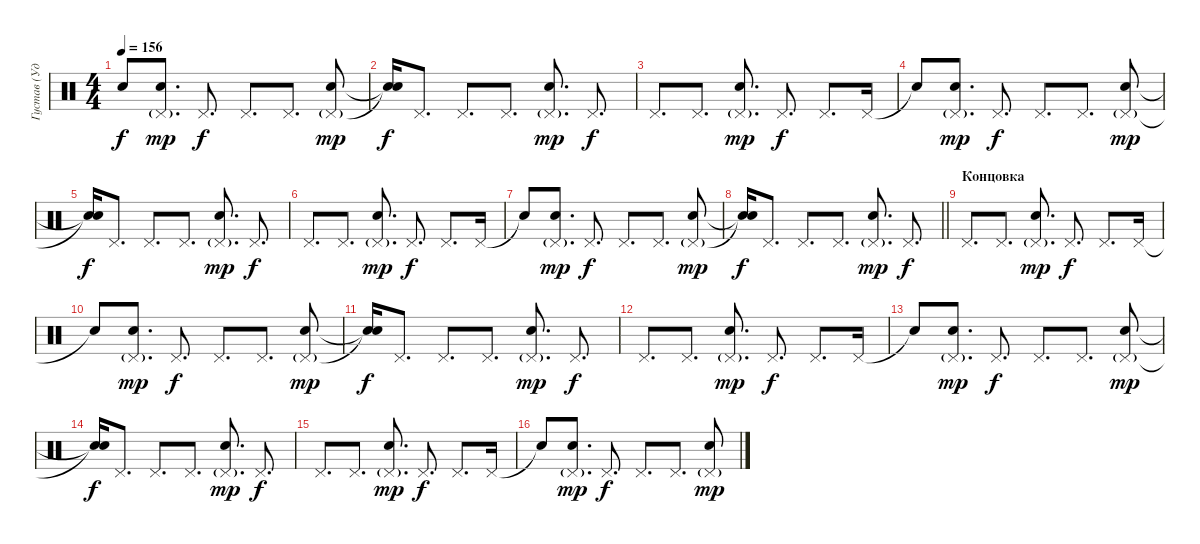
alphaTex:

\track ("Густав (Ударные)" "Густав (Уд") {instrument percussion}
\staff {score}
\articulation defaults
\ts (4 4)
\tempo 156
\clef neutral
\ks c "Snare (hit)"{t}.8{dy f}
("Pedal Hi-Hat (hit)"{g} "Electric Snare (hit)").8{d dy mp} "Pedal Hi-Hat (hit)".8{d dy f} "Pedal Hi-Hat (hit)".8{d} "Pedal Hi-Hat (hit)".8{d} ("Pedal Hi-Hat (hit)"{g} "Electric Snare (hit)").8{dy mp} |
("Snare (hit)"{t} "Snare (hit)"{t}).16{dy f} "Pedal Hi-Hat (hit)".8{d} "Pedal Hi-Hat (hit)".8{d} "Pedal Hi-Hat (hit)".8{d} ("Pedal Hi-Hat (hit)"{g} "Electric Snare (hit)").8{d dy mp} "Pedal Hi-Hat (hit)".8{d dy f} |
"Pedal Hi-Hat (hit)".8{d} "Pedal Hi-Hat (hit)".8{d} ("Pedal Hi-Hat (hit)"{g} "Electric Snare (hit)").8{d dy mp} "Pedal Hi-Hat (hit)".8{d dy f} "Pedal Hi-Hat (hit)".8{d} "Pedal Hi-Hat (hit)".16 |
"Snare (hit)"{t}.8 ("Pedal Hi-Hat (hit)"{g} "Electric Snare (hit)").8{d dy mp} "Pedal Hi-Hat (hit)".8{d dy f} "Pedal Hi-Hat (hit)".8{d} "Pedal Hi-Hat (hit)".8{d} ("Pedal Hi-Hat (hit)"{g} "Electric Snare (hit)").8{dy mp} |
("Snare (hit)"{t} "Snare (hit)"{t}).16{dy f} "Pedal Hi-Hat (hit)".8{d} "Pedal Hi-Hat (hit)".8{d} "Pedal Hi-Hat (hit)".8{d} ("Pedal Hi-Hat (hit)"{g} "Electric Snare (hit)").8{d dy mp} "Pedal Hi-Hat (hit)".8{d dy f} |
"Pedal Hi-Hat (hit)".8{d} "Pedal Hi-Hat (hit)".8{d} ("Pedal Hi-Hat (hit)"{g} "Electric Snare (hit)").8{d dy mp} "Pedal Hi-Hat (hit)".8{d dy f} "Pedal Hi-Hat (hit)".8{d} "Pedal Hi-Hat (hit)".16 |
"Snare (hit)"{t}.8 ("Pedal Hi-Hat (hit)"{g} "Electric Snare (hit)").8{d dy mp} "Pedal Hi-Hat (hit)".8{d dy f} "Pedal Hi-Hat (hit)".8{d} "Pedal Hi-Hat (hit)".8{d} ("Pedal Hi-Hat (hit)"{g} "Electric Snare (hit)").8{dy mp} |
\barLineRight lightlight
("Snare (hit)"{t} "Snare (hit)"{t}).16{dy f} "Pedal Hi-Hat (hit)".8{d} "Pedal Hi-Hat (hit)".8{d} "Pedal Hi-Hat (hit)".8{d} ("Pedal Hi-Hat (hit)"{g} "Electric Snare (hit)").8{d dy mp} "Pedal Hi-Hat (hit)".8{d dy f} |
\section ("" "Концовка")
"Pedal Hi-Hat (hit)".8{d} "Pedal Hi-Hat (hit)".8{d} ("Pedal Hi-Hat (hit)"{g} "Electric Snare (hit)").8{d dy mp} "Pedal Hi-Hat (hit)".8{d dy f} "Pedal Hi-Hat (hit)".8{d} "Pedal Hi-Hat (hit)".16 |
"Snare (hit)"{t}.8 ("Pedal Hi-Hat (hit)"{g} "Electric Snare (hit)").8{d dy mp} "Pedal Hi-Hat (hit)".8{d dy f} "Pedal Hi-Hat (hit)".8{d} "Pedal Hi-Hat (hit)".8{d} ("Pedal Hi-Hat (hit)"{g} "Electric Snare (hit)").8{dy mp} |
("Snare (hit)"{t} "Snare (hit)"{t}).16{dy f} "Pedal Hi-Hat (hit)".8{d} "Pedal Hi-Hat (hit)".8{d} "Pedal Hi-Hat (hit)".8{d} ("Pedal Hi-Hat (hit)"{g} "Electric Snare (hit)").8{d dy mp} "Pedal Hi-Hat (hit)".8{d dy f} |
"Pedal Hi-Hat (hit)".8{d} "Pedal Hi-Hat (hit)".8{d} ("Pedal Hi-Hat (hit)"{g} "Electric Snare (hit)").8{d dy mp} "Pedal Hi-Hat (hit)".8{d dy f} "Pedal Hi-Hat (hit)".8{d} "Pedal Hi-Hat (hit)".16 |
"Snare (hit)"{t}.8 ("Pedal Hi-Hat (hit)"{g} "Electric Snare (hit)").8{d dy mp} "Pedal Hi-Hat (hit)".8{d dy f} "Pedal Hi-Hat (hit)".8{d} "Pedal Hi-Hat (hit)".8{d} ("Pedal Hi-Hat (hit)"{g} "Electric Snare (hit)").8{dy mp} |
("Snare (hit)"{t} "Snare (hit)"{t}).16{dy f} "Pedal Hi-Hat (hit)".8{d} "Pedal Hi-Hat (hit)".8{d} "Pedal Hi-Hat (hit)".8{d} ("Pedal Hi-Hat (hit)"{g} "Electric Snare (hit)").8{d dy mp} "Pedal Hi-Hat (hit)".8{d dy f} |
"Pedal Hi-Hat (hit)".8{d} "Pedal Hi-Hat (hit)".8{d} ("Pedal Hi-Hat (hit)"{g} "Electric Snare (hit)").8{d dy mp} "Pedal Hi-Hat (hit)".8{d dy f} "Pedal Hi-Hat (hit)".8{d} "Pedal Hi-Hat (hit)".16 |
"Snare (hit)"{t}.8 ("Pedal Hi-Hat (hit)"{g} "Electric Snare (hit)").8{d dy mp} "Pedal Hi-Hat (hit)".8{d dy f} "Pedal Hi-Hat (hit)".8{d} "Pedal Hi-Hat (hit)".8{d} ("Pedal Hi-Hat (hit)"{g} "Electric Snare (hit)").8{dy mp}
